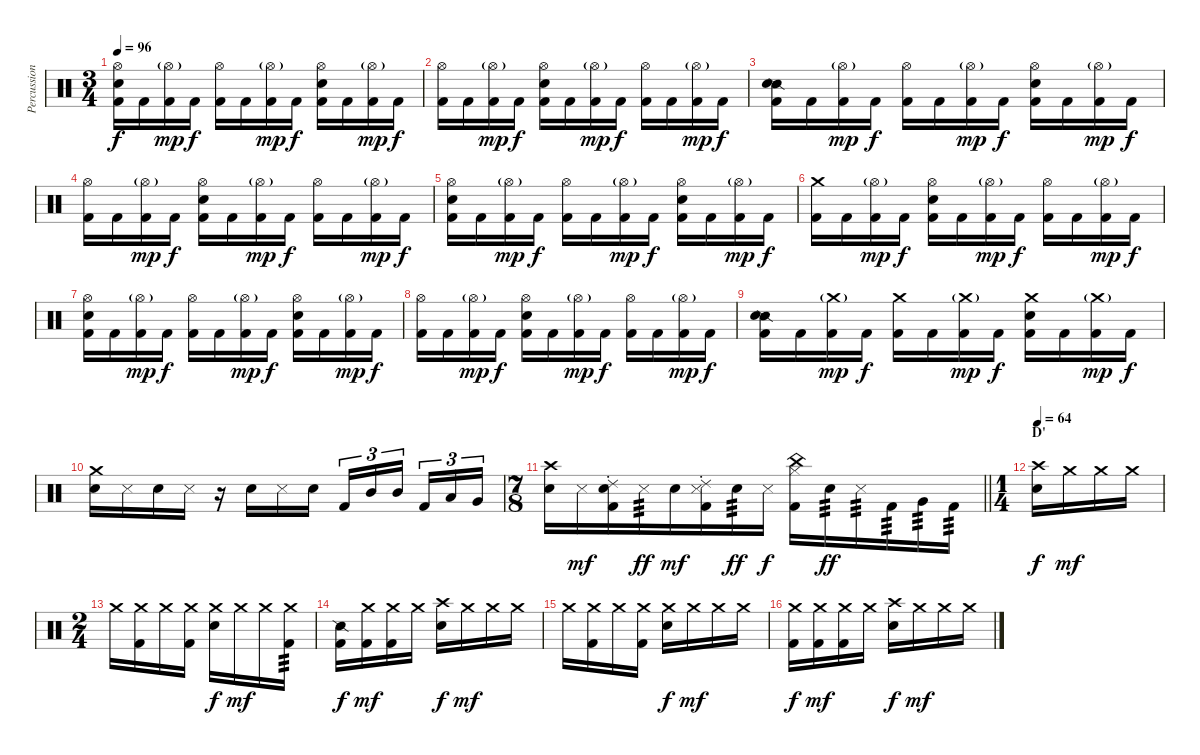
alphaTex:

\track ("Percussion" "Percussion") {instrument percussion}
\staff {score}
\articulation defaults
\ts (3 4)
\tempo 96
\clef neutral
\ks c
("Hi-Hat (open)" "Snare (hit) 2" "Kick (hit) 2").16{dy f} "Kick (hit) 2".16 ("Hi-Hat (open)"{g} "Kick (hit) 2").16{dy mp} "Kick (hit) 2".16{dy f} ("Hi-Hat (open)" "Kick (hit) 2").16 "Kick (hit) 2".16 ("Hi-Hat (open)"{g} "Kick (hit) 2").16{dy mp} "Kick (hit) 2".16{dy f} ("Hi-Hat (open)" "Snare (hit) 2" "Kick (hit) 2").16 "Kick (hit) 2".16 ("Hi-Hat (open)"{g} "Kick (hit) 2").16{dy mp} "Kick (hit) 2".16{dy f} |
("Hi-Hat (open)" "Kick (hit) 2").16 "Kick (hit) 2".16 ("Hi-Hat (open)"{g} "Kick (hit) 2").16{dy mp} "Kick (hit) 2".16{dy f} ("Hi-Hat (open)" "Snare (hit) 2" "Kick (hit) 2").16 "Kick (hit) 2".16 ("Hi-Hat (open)"{g} "Kick (hit) 2").16{dy mp} "Kick (hit) 2".16{dy f} ("Hi-Hat (open)" "Kick (hit) 2").16 "Kick (hit) 2".16 ("Hi-Hat (open)"{g} "Kick (hit) 2").16{dy mp} "Kick (hit) 2".16{dy f} |
("Snare (side stick) 2" "Snare (hit) 2" "Kick (hit) 2").16 "Kick (hit) 2".16 ("Hi-Hat (open)"{g} "Kick (hit) 2").16{dy mp} "Kick (hit) 2".16{dy f} ("Hi-Hat (open)" "Kick (hit) 2").16 "Kick (hit) 2".16 ("Hi-Hat (open)"{g} "Kick (hit) 2").16{dy mp} "Kick (hit) 2".16{dy f} ("Hi-Hat (open)" "Snare (hit) 2" "Kick (hit) 2").16 "Kick (hit) 2".16 ("Hi-Hat (open)"{g} "Kick (hit) 2").16{dy mp} "Kick (hit) 2".16{dy f} |
("Hi-Hat (open)" "Kick (hit) 2").16 "Kick (hit) 2".16 ("Hi-Hat (open)"{g} "Kick (hit) 2").16{dy mp} "Kick (hit) 2".16{dy f} ("Hi-Hat (open)" "Snare (hit) 2" "Kick (hit) 2").16 "Kick (hit) 2".16 ("Hi-Hat (open)"{g} "Kick (hit) 2").16{dy mp} "Kick (hit) 2".16{dy f} ("Hi-Hat (open)" "Kick (hit) 2").16 "Kick (hit) 2".16 ("Hi-Hat (open)"{g} "Kick (hit) 2").16{dy mp} "Kick (hit) 2".16{dy f} |
("Hi-Hat (open)" "Snare (hit) 2" "Kick (hit) 2").16 "Kick (hit) 2".16 ("Hi-Hat (open)"{g} "Kick (hit) 2").16{dy mp} "Kick (hit) 2".16{dy f} ("Hi-Hat (open)" "Kick (hit) 2").16 "Kick (hit) 2".16 ("Hi-Hat (open)"{g} "Kick (hit) 2").16{dy mp} "Kick (hit) 2".16{dy f} ("Hi-Hat (open)" "Snare (hit) 2" "Kick (hit) 2").16 "Kick (hit) 2".16 ("Hi-Hat (open)"{g} "Kick (hit) 2").16{dy mp} "Kick (hit) 2".16{dy f} |
("Crash medium (hit)" "Kick (hit) 2").16 "Kick (hit) 2".16 ("Hi-Hat (open)"{g} "Kick (hit) 2").16{dy mp} "Kick (hit) 2".16{dy f} ("Hi-Hat (open)" "Snare (hit) 2" "Kick (hit) 2").16 "Kick (hit) 2".16 ("Hi-Hat (open)"{g} "Kick (hit) 2").16{dy mp} "Kick (hit) 2".16{dy f} ("Hi-Hat (open)" "Kick (hit) 2").16 "Kick (hit) 2".16 ("Hi-Hat (open)"{g} "Kick (hit) 2").16{dy mp} "Kick (hit) 2".16{dy f} |
("Hi-Hat (open)" "Snare (hit) 2" "Kick (hit) 2").16 "Kick (hit) 2".16 ("Hi-Hat (open)"{g} "Kick (hit) 2").16{dy mp} "Kick (hit) 2".16{dy f} ("Hi-Hat (open)" "Kick (hit) 2").16 "Kick (hit) 2".16 ("Hi-Hat (open)"{g} "Kick (hit) 2").16{dy mp} "Kick (hit) 2".16{dy f} ("Hi-Hat (open)" "Snare (hit) 2" "Kick (hit) 2").16 "Kick (hit) 2".16 ("Hi-Hat (open)"{g} "Kick (hit) 2").16{dy mp} "Kick (hit) 2".16{dy f} |
("Hi-Hat (open)" "Kick (hit) 2").16 "Kick (hit) 2".16 ("Hi-Hat (open)"{g} "Kick (hit) 2").16{dy mp} "Kick (hit) 2".16{dy f} ("Hi-Hat (open)" "Snare (hit) 2" "Kick (hit) 2").16 "Kick (hit) 2".16 ("Hi-Hat (open)"{g} "Kick (hit) 2").16{dy mp} "Kick (hit) 2".16{dy f} ("Hi-Hat (open)" "Kick (hit) 2").16 "Kick (hit) 2".16 ("Hi-Hat (open)"{g} "Kick (hit) 2").16{dy mp} "Kick (hit) 2".16{dy f} |
("Snare (side stick) 2" "Snare (hit) 2" "Kick (hit) 2").16 "Kick (hit) 2".16 ("Crash medium (hit)"{g} "Kick (hit) 2").16{dy mp} "Kick (hit) 2".16{dy f} ("Crash medium (hit)" "Kick (hit) 2").16 "Kick (hit) 2".16 ("Crash medium (hit)"{g} "Kick (hit) 2").16{dy mp} "Kick (hit) 2".16{dy f} ("Crash medium (hit)" "Snare (hit) 2" "Kick (hit) 2").16 "Kick (hit) 2".16 ("Crash medium (hit)"{g} "Kick (hit) 2").16{dy mp} "Kick (hit) 2".16{dy f} |
("Crash medium (hit)" "Snare (hit) 2").16 "Metronome (hit)".16 "Snare (hit) 2".16 "Metronome (hit)".16 r.16 "Snare (hit) 2".16 "Metronome (hit)".16 "Snare (hit) 2".16 "Kick (hit) 2".16{tu (3 2)} "Mid Tom (hit)".16{tu (3 2)} "Mid Tom (hit)".16{tu (3 2) beam splitsecondary} "Kick (hit) 2".16{tu (3 2)} "Low Tom (hit)".16{tu (3 2)} "Very Low Tom (hit)".16{tu (3 2)} |
\ts (7 8)
\barLineRight lightlight
("Crash high (hit)" "Snare (hit) 2").16 "Metronome (hit)".16{dy mf} ("Ride (choke) 2" "Snare (hit) 2" "Kick (hit) 2").16 "Metronome (hit)".16{tp 3 dy ff} "Snare (hit) 2".16{dy mf} ("Ride (choke) 2" "Metronome (hit)" "Kick (hit) 2").16 "Snare (hit) 2".16{tp 3 dy ff} "Metronome (hit)".16{dy f} ("Hi-Hat (closed)" "China (hit)" "Kick (hit) 2").16 "Snare (hit) 2".16{tp 3 dy ff} "Metronome (hit)".16{tp 3} "Kick (hit) 2".16{tp 3} "Very Low Tom (hit)".16{tp 3} "Kick (hit) 2".16{tp 3} |
\ts (1 4)
\section ("" "D'")
\tempo 64
("Crash high (hit)" "Snare (hit) 2").16{dy f} "Crash medium (hit)".16{dy mf} "Crash medium (hit)".16 "Crash medium (hit)".16 |
\ts (2 4)
"Crash medium (hit)".16 ("Crash medium (hit)" "Kick (hit) 2").16 "Crash medium (hit)".16 ("Crash medium (hit)" "Kick (hit) 2").16 ("Crash medium (hit)" "Snare (hit) 2").16{dy f} "Crash medium (hit)".16{dy mf} "Crash medium (hit)".16 ("Crash medium (hit)" "Kick (hit) 2").16{tp 3} |
("Snare (side stick) 2" "Kick (hit) 2").16{dy f} ("Crash medium (hit)" "Kick (hit) 2").16{dy mf} ("Crash medium (hit)" "Kick (hit) 2").16 "Crash medium (hit)".16 ("Crash high (hit)" "Snare (hit) 2").16{dy f} "Crash medium (hit)".16{dy mf} "Crash medium (hit)".16 "Crash medium (hit)".16 |
"Crash medium (hit)".16 ("Crash medium (hit)" "Kick (hit) 2").16 "Crash medium (hit)".16 ("Crash medium (hit)" "Kick (hit) 2").16 ("Crash medium (hit)" "Snare (hit) 2").16{dy f} "Crash medium (hit)".16{dy mf} "Crash medium (hit)".16 "Crash medium (hit)".16 |
("Crash medium (hit)" "Kick (hit) 2").16{dy f} ("Crash medium (hit)" "Kick (hit) 2").16{dy mf} ("Crash medium (hit)" "Kick (hit) 2").16 "Crash medium (hit)".16 ("Crash high (hit)" "Snare (hit) 2").16{dy f} "Crash medium (hit)".16{dy mf} "Crash medium (hit)".16 "Crash medium (hit)".16
